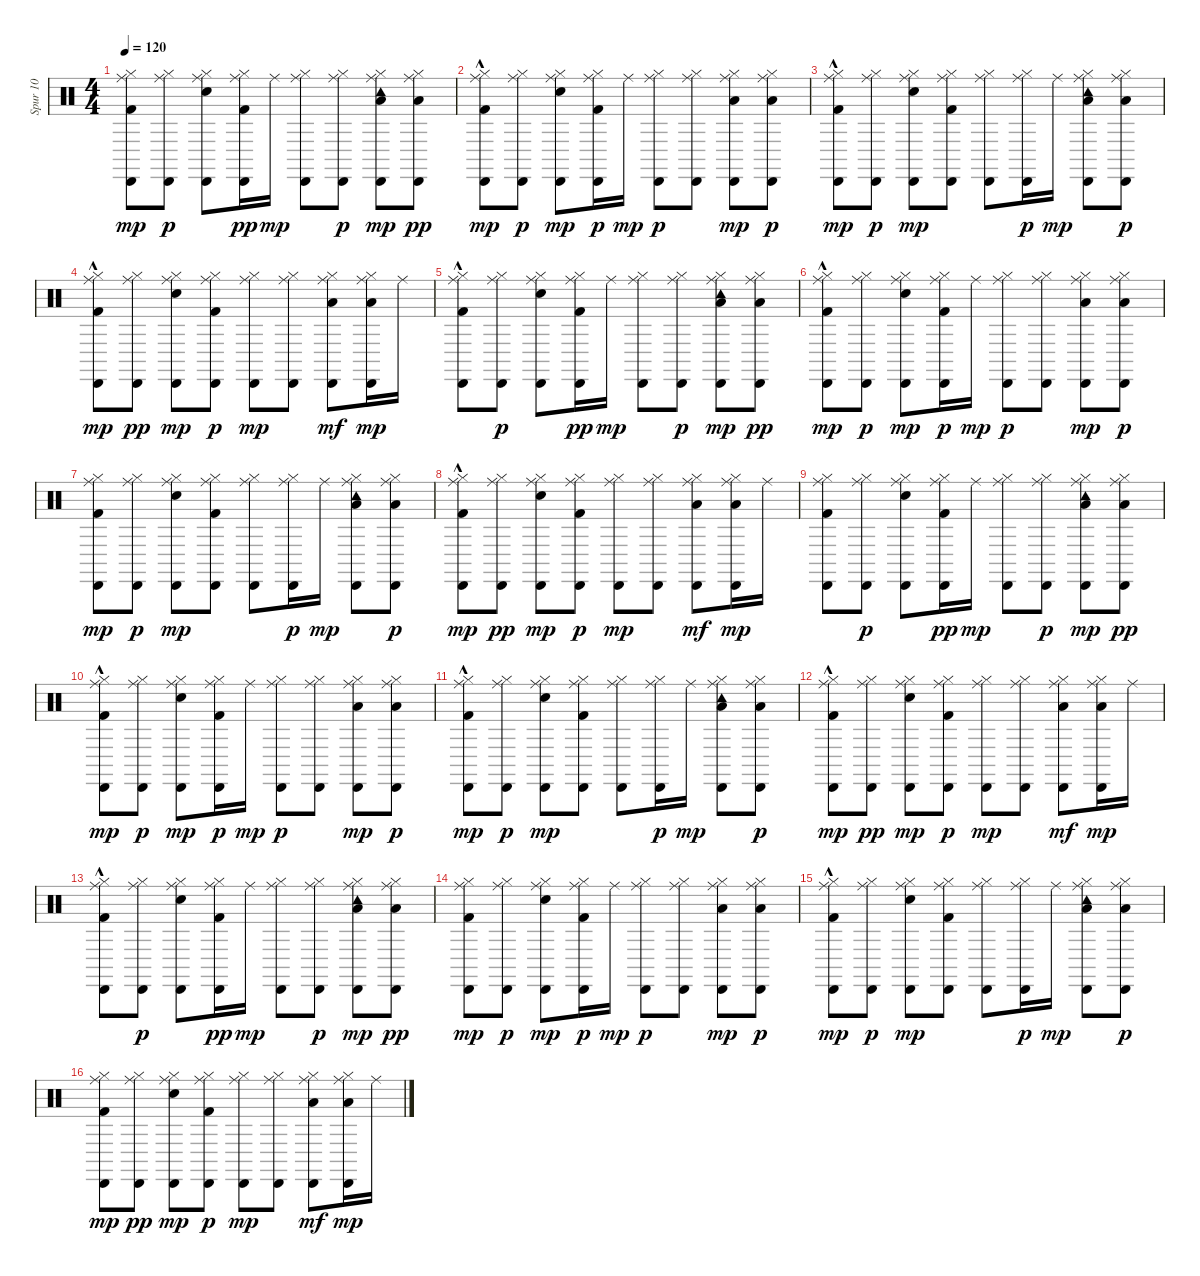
\track ("Spur 10" "Spur 10") {instrument percussion}
\staff {score}
\articulation defaults
\ts (4 4)
\tempo 120
\clef neutral
\ks c
("Kick (hit) 2" "Hi-Hat (closed)" "Cabasa (hit)" "Ride (middle)").8{dy mp} ("Hi-Hat (closed)" "Cabasa (hit)" "Ride (middle)").8{dy p} ("Snare (hit) 2" "Hi-Hat (closed)" "Cabasa (hit)" "Ride (middle)").8 ("Kick (hit) 2" "Hi-Hat (closed)" "Cabasa (hit)" "Ride (middle)").16{dy pp} "Ride (middle)".16{dy mp} ("Hi-Hat (closed)" "Cabasa (hit)" "Ride (middle)").8 ("Hi-Hat (closed)" "Cabasa (hit)" "Ride (middle)").8{dy p} ("Low Tom (hit)" "Hi-Hat (closed)" "Cabasa (hit)" "Tambourine (hit)" "Ride (middle)").8{dy mp} ("Low Tom (hit)" "Hi-Hat (closed)" "Cabasa (hit)" "Ride (middle)").8{dy pp} |
("Kick (hit) 2"{hac} "Hi-Hat (closed)" "Cabasa (hit)" "Ride (middle)").8{dy mp} ("Hi-Hat (closed)" "Cabasa (hit)" "Ride (middle)").8{dy p} ("Snare (hit) 2" "Hi-Hat (closed)" "Cabasa (hit)" "Ride (middle)").8{dy mp} ("Kick (hit) 2" "Hi-Hat (closed)" "Cabasa (hit)" "Ride (middle)").16{dy p} "Ride (middle)".16{dy mp} ("Hi-Hat (closed)" "Cabasa (hit)" "Ride (middle)").8{dy p} ("Hi-Hat (closed)" "Cabasa (hit)" "Ride (middle)").8 ("Low Floor Tom (hit)" "Hi-Hat (closed)" "Cabasa (hit)" "Ride (middle)").8{dy mp} ("Low Floor Tom (hit)" "Hi-Hat (closed)" "Cabasa (hit)" "Ride (middle)").8{dy p} |
("Kick (hit) 2"{hac} "Hi-Hat (closed)" "Cabasa (hit)" "Ride (middle)").8{dy mp} ("Hi-Hat (closed)" "Cabasa (hit)" "Ride (middle)").8{dy p} ("Snare (hit) 2" "Hi-Hat (closed)" "Cabasa (hit)" "Ride (middle)").8{dy mp} ("Kick (hit) 2" "Hi-Hat (closed)" "Cabasa (hit)" "Ride (middle)").8 ("Hi-Hat (closed)" "Cabasa (hit)" "Ride (middle)").8 ("Hi-Hat (closed)" "Cabasa (hit)" "Ride (middle)").16{dy p} "Ride (middle)".16{dy mp} ("Low Tom (hit)" "Hi-Hat (closed)" "Cabasa (hit)" "Tambourine (hit)" "Ride (middle)").8 ("Low Tom (hit)" "Hi-Hat (closed)" "Cabasa (hit)" "Ride (middle)").8{dy p} |
("Kick (hit) 2"{hac} "Hi-Hat (closed)" "Cabasa (hit)" "Ride (middle)").8{dy mp} ("Hi-Hat (closed)" "Cabasa (hit)" "Ride (middle)").8{dy pp} ("Snare (hit) 2" "Hi-Hat (closed)" "Cabasa (hit)" "Ride (middle)").8{dy mp} ("Kick (hit) 2" "Hi-Hat (closed)" "Cabasa (hit)" "Ride (middle)").8{dy p} ("Hi-Hat (closed)" "Cabasa (hit)" "Ride (middle)").8{dy mp} ("Hi-Hat (closed)" "Cabasa (hit)" "Ride (middle)").8 ("Low Floor Tom (hit)" "Hi-Hat (closed)" "Cabasa (hit)" "Ride (middle)").8{dy mf} ("Low Floor Tom (hit)" "Hi-Hat (closed)" "Cabasa (hit)" "Ride (middle)").16{dy mp} "Ride (middle)".16 |
("Kick (hit) 2"{hac} "Hi-Hat (closed)" "Cabasa (hit)" "Ride (middle)").8 ("Hi-Hat (closed)" "Cabasa (hit)" "Ride (middle)").8{dy p} ("Snare (hit) 2" "Hi-Hat (closed)" "Cabasa (hit)" "Ride (middle)").8 ("Kick (hit) 2" "Hi-Hat (closed)" "Cabasa (hit)" "Ride (middle)").16{dy pp} "Ride (middle)".16{dy mp} ("Hi-Hat (closed)" "Cabasa (hit)" "Ride (middle)").8 ("Hi-Hat (closed)" "Cabasa (hit)" "Ride (middle)").8{dy p} ("Low Tom (hit)" "Hi-Hat (closed)" "Cabasa (hit)" "Tambourine (hit)" "Ride (middle)").8{dy mp} ("Low Tom (hit)" "Hi-Hat (closed)" "Cabasa (hit)" "Ride (middle)").8{dy pp} |
("Kick (hit) 2"{hac} "Hi-Hat (closed)" "Cabasa (hit)" "Ride (middle)").8{dy mp} ("Hi-Hat (closed)" "Cabasa (hit)" "Ride (middle)").8{dy p} ("Snare (hit) 2" "Hi-Hat (closed)" "Cabasa (hit)" "Ride (middle)").8{dy mp} ("Kick (hit) 2" "Hi-Hat (closed)" "Cabasa (hit)" "Ride (middle)").16{dy p} "Ride (middle)".16{dy mp} ("Hi-Hat (closed)" "Cabasa (hit)" "Ride (middle)").8{dy p} ("Hi-Hat (closed)" "Cabasa (hit)" "Ride (middle)").8 ("Low Floor Tom (hit)" "Hi-Hat (closed)" "Cabasa (hit)" "Ride (middle)").8{dy mp} ("Low Floor Tom (hit)" "Hi-Hat (closed)" "Cabasa (hit)" "Ride (middle)").8{dy p} |
("Kick (hit) 2" "Hi-Hat (closed)" "Cabasa (hit)" "Ride (middle)").8{dy mp} ("Hi-Hat (closed)" "Cabasa (hit)" "Ride (middle)").8{dy p} ("Snare (hit) 2" "Hi-Hat (closed)" "Cabasa (hit)" "Ride (middle)").8{dy mp} ("Kick (hit) 2" "Hi-Hat (closed)" "Cabasa (hit)" "Ride (middle)").8 ("Hi-Hat (closed)" "Cabasa (hit)" "Ride (middle)").8 ("Hi-Hat (closed)" "Cabasa (hit)" "Ride (middle)").16{dy p} "Ride (middle)".16{dy mp} ("Low Tom (hit)" "Hi-Hat (closed)" "Cabasa (hit)" "Tambourine (hit)" "Ride (middle)").8 ("Low Tom (hit)" "Hi-Hat (closed)" "Cabasa (hit)" "Ride (middle)").8{dy p} |
("Kick (hit) 2"{hac} "Hi-Hat (closed)" "Cabasa (hit)" "Ride (middle)").8{dy mp} ("Hi-Hat (closed)" "Cabasa (hit)" "Ride (middle)").8{dy pp} ("Snare (hit) 2" "Hi-Hat (closed)" "Cabasa (hit)" "Ride (middle)").8{dy mp} ("Kick (hit) 2" "Hi-Hat (closed)" "Cabasa (hit)" "Ride (middle)").8{dy p} ("Hi-Hat (closed)" "Cabasa (hit)" "Ride (middle)").8{dy mp} ("Hi-Hat (closed)" "Cabasa (hit)" "Ride (middle)").8 ("Low Floor Tom (hit)" "Hi-Hat (closed)" "Cabasa (hit)" "Ride (middle)").8{dy mf} ("Low Floor Tom (hit)" "Hi-Hat (closed)" "Cabasa (hit)" "Ride (middle)").16{dy mp} "Ride (middle)".16 |
("Kick (hit) 2" "Hi-Hat (closed)" "Cabasa (hit)" "Ride (middle)").8 ("Hi-Hat (closed)" "Cabasa (hit)" "Ride (middle)").8{dy p} ("Snare (hit) 2" "Hi-Hat (closed)" "Cabasa (hit)" "Ride (middle)").8 ("Kick (hit) 2" "Hi-Hat (closed)" "Cabasa (hit)" "Ride (middle)").16{dy pp} "Ride (middle)".16{dy mp} ("Hi-Hat (closed)" "Cabasa (hit)" "Ride (middle)").8 ("Hi-Hat (closed)" "Cabasa (hit)" "Ride (middle)").8{dy p} ("Low Tom (hit)" "Hi-Hat (closed)" "Cabasa (hit)" "Tambourine (hit)" "Ride (middle)").8{dy mp} ("Low Tom (hit)" "Hi-Hat (closed)" "Cabasa (hit)" "Ride (middle)").8{dy pp} |
("Kick (hit) 2"{hac} "Hi-Hat (closed)" "Cabasa (hit)" "Ride (middle)").8{dy mp} ("Hi-Hat (closed)" "Cabasa (hit)" "Ride (middle)").8{dy p} ("Snare (hit) 2" "Hi-Hat (closed)" "Cabasa (hit)" "Ride (middle)").8{dy mp} ("Kick (hit) 2" "Hi-Hat (closed)" "Cabasa (hit)" "Ride (middle)").16{dy p} "Ride (middle)".16{dy mp} ("Hi-Hat (closed)" "Cabasa (hit)" "Ride (middle)").8{dy p} ("Hi-Hat (closed)" "Cabasa (hit)" "Ride (middle)").8 ("Low Floor Tom (hit)" "Hi-Hat (closed)" "Cabasa (hit)" "Ride (middle)").8{dy mp} ("Low Floor Tom (hit)" "Hi-Hat (closed)" "Cabasa (hit)" "Ride (middle)").8{dy p} |
("Kick (hit) 2"{hac} "Hi-Hat (closed)" "Cabasa (hit)" "Ride (middle)").8{dy mp} ("Hi-Hat (closed)" "Cabasa (hit)" "Ride (middle)").8{dy p} ("Snare (hit) 2" "Hi-Hat (closed)" "Cabasa (hit)" "Ride (middle)").8{dy mp} ("Kick (hit) 2" "Hi-Hat (closed)" "Cabasa (hit)" "Ride (middle)").8 ("Hi-Hat (closed)" "Cabasa (hit)" "Ride (middle)").8 ("Hi-Hat (closed)" "Cabasa (hit)" "Ride (middle)").16{dy p} "Ride (middle)".16{dy mp} ("Low Tom (hit)" "Hi-Hat (closed)" "Cabasa (hit)" "Tambourine (hit)" "Ride (middle)").8 ("Low Tom (hit)" "Hi-Hat (closed)" "Cabasa (hit)" "Ride (middle)").8{dy p} |
("Kick (hit) 2"{hac} "Hi-Hat (closed)" "Cabasa (hit)" "Ride (middle)").8{dy mp} ("Hi-Hat (closed)" "Cabasa (hit)" "Ride (middle)").8{dy pp} ("Snare (hit) 2" "Hi-Hat (closed)" "Cabasa (hit)" "Ride (middle)").8{dy mp} ("Kick (hit) 2" "Hi-Hat (closed)" "Cabasa (hit)" "Ride (middle)").8{dy p} ("Hi-Hat (closed)" "Cabasa (hit)" "Ride (middle)").8{dy mp} ("Hi-Hat (closed)" "Cabasa (hit)" "Ride (middle)").8 ("Low Floor Tom (hit)" "Hi-Hat (closed)" "Cabasa (hit)" "Ride (middle)").8{dy mf} ("Low Floor Tom (hit)" "Hi-Hat (closed)" "Cabasa (hit)" "Ride (middle)").16{dy mp} "Ride (middle)".16 |
("Kick (hit) 2"{hac} "Hi-Hat (closed)" "Cabasa (hit)" "Ride (middle)").8 ("Hi-Hat (closed)" "Cabasa (hit)" "Ride (middle)").8{dy p} ("Snare (hit) 2" "Hi-Hat (closed)" "Cabasa (hit)" "Ride (middle)").8 ("Kick (hit) 2" "Hi-Hat (closed)" "Cabasa (hit)" "Ride (middle)").16{dy pp} "Ride (middle)".16{dy mp} ("Hi-Hat (closed)" "Cabasa (hit)" "Ride (middle)").8 ("Hi-Hat (closed)" "Cabasa (hit)" "Ride (middle)").8{dy p} ("Low Tom (hit)" "Hi-Hat (closed)" "Cabasa (hit)" "Tambourine (hit)" "Ride (middle)").8{dy mp} ("Low Tom (hit)" "Hi-Hat (closed)" "Cabasa (hit)" "Ride (middle)").8{dy pp} |
("Kick (hit) 2" "Hi-Hat (closed)" "Cabasa (hit)" "Ride (middle)").8{dy mp} ("Hi-Hat (closed)" "Cabasa (hit)" "Ride (middle)").8{dy p} ("Snare (hit) 2" "Hi-Hat (closed)" "Cabasa (hit)" "Ride (middle)").8{dy mp} ("Kick (hit) 2" "Hi-Hat (closed)" "Cabasa (hit)" "Ride (middle)").16{dy p} "Ride (middle)".16{dy mp} ("Hi-Hat (closed)" "Cabasa (hit)" "Ride (middle)").8{dy p} ("Hi-Hat (closed)" "Cabasa (hit)" "Ride (middle)").8 ("Low Floor Tom (hit)" "Hi-Hat (closed)" "Cabasa (hit)" "Ride (middle)").8{dy mp} ("Low Floor Tom (hit)" "Hi-Hat (closed)" "Cabasa (hit)" "Ride (middle)").8{dy p} |
("Kick (hit) 2"{hac} "Hi-Hat (closed)" "Cabasa (hit)" "Ride (middle)").8{dy mp} ("Hi-Hat (closed)" "Cabasa (hit)" "Ride (middle)").8{dy p} ("Snare (hit) 2" "Hi-Hat (closed)" "Cabasa (hit)" "Ride (middle)").8{dy mp} ("Kick (hit) 2" "Hi-Hat (closed)" "Cabasa (hit)" "Ride (middle)").8 ("Hi-Hat (closed)" "Cabasa (hit)" "Ride (middle)").8 ("Hi-Hat (closed)" "Cabasa (hit)" "Ride (middle)").16{dy p} "Ride (middle)".16{dy mp} ("Low Tom (hit)" "Hi-Hat (closed)" "Cabasa (hit)" "Tambourine (hit)" "Ride (middle)").8 ("Low Tom (hit)" "Hi-Hat (closed)" "Cabasa (hit)" "Ride (middle)").8{dy p} |
("Kick (hit) 2" "Hi-Hat (closed)" "Cabasa (hit)" "Ride (middle)").8{dy mp} ("Hi-Hat (closed)" "Cabasa (hit)" "Ride (middle)").8{dy pp} ("Snare (hit) 2" "Hi-Hat (closed)" "Cabasa (hit)" "Ride (middle)").8{dy mp} ("Kick (hit) 2" "Hi-Hat (closed)" "Cabasa (hit)" "Ride (middle)").8{dy p} ("Hi-Hat (closed)" "Cabasa (hit)" "Ride (middle)").8{dy mp} ("Hi-Hat (closed)" "Cabasa (hit)" "Ride (middle)").8 ("Low Floor Tom (hit)" "Hi-Hat (closed)" "Cabasa (hit)" "Ride (middle)").8{dy mf} ("Low Floor Tom (hit)" "Hi-Hat (closed)" "Cabasa (hit)" "Ride (middle)").16{dy mp} "Ride (middle)".16
